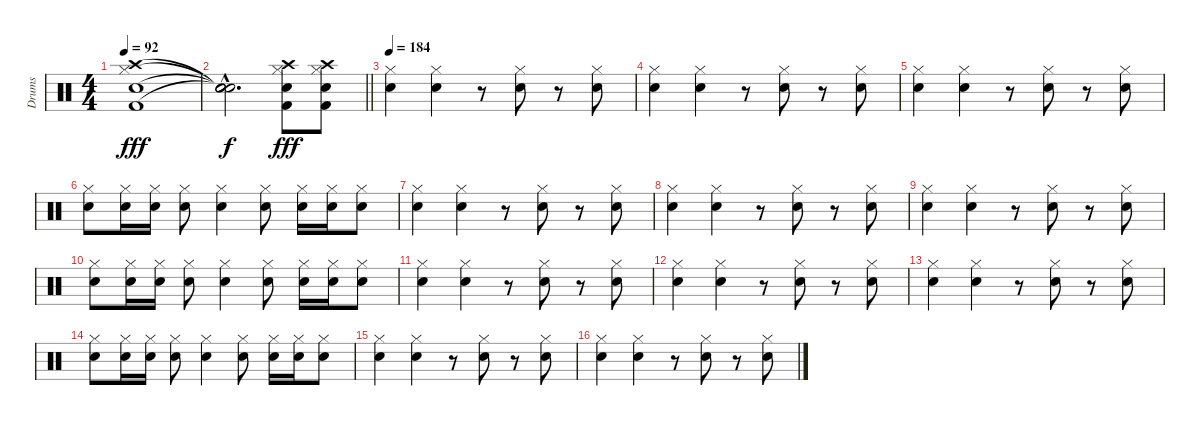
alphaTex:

\track ("Drums" "Drums") {instrument percussion}
\staff {score}
\articulation defaults
\ts (4 4)
\tempo 92
\clef neutral
\ks c
("Hi-Hat (closed)" "Kick (hit) 2" "Snare (hit) 2" "Crash high (hit)").1{dy fff} |
\barLineRight lightlight
("Snare (hit)"{hac t} "Snare (hit)"{hac t} "Snare (hit)"{hac t} "Snare (hit)"{hac t}).2{d dy f} ("Hi-Hat (closed)" "Kick (hit) 2" "Snare (hit) 2" "Crash high (hit)").8{dy fff} ("Hi-Hat (closed)" "Kick (hit) 2" "Snare (hit) 2" "Crash high (hit)").8 |
\tempo 184
("Hi-Hat (closed)" "Snare (hit) 2").4 ("Hi-Hat (closed)" "Snare (hit) 2").4 r.8 ("Hi-Hat (closed)" "Snare (hit) 2").8 r.8 ("Hi-Hat (closed)" "Snare (hit) 2").8 |
("Hi-Hat (closed)" "Snare (hit) 2").4 ("Hi-Hat (closed)" "Snare (hit) 2").4 r.8 ("Hi-Hat (closed)" "Snare (hit) 2").8 r.8 ("Hi-Hat (closed)" "Snare (hit) 2").8 |
("Hi-Hat (closed)" "Snare (hit) 2").4 ("Hi-Hat (closed)" "Snare (hit) 2").4 r.8 ("Hi-Hat (closed)" "Snare (hit) 2").8 r.8 ("Hi-Hat (closed)" "Snare (hit) 2").8 |
("Hi-Hat (closed)" "Snare (hit) 2").8 ("Hi-Hat (closed)" "Snare (hit) 2").16 ("Hi-Hat (closed)" "Snare (hit) 2").16 ("Hi-Hat (closed)" "Snare (hit) 2").8 ("Hi-Hat (closed)" "Snare (hit) 2").4 ("Hi-Hat (closed)" "Snare (hit) 2").8 ("Hi-Hat (closed)" "Snare (hit) 2").16 ("Hi-Hat (closed)" "Snare (hit) 2").16 ("Hi-Hat (closed)" "Snare (hit) 2").8 |
("Hi-Hat (closed)" "Snare (hit) 2").4 ("Hi-Hat (closed)" "Snare (hit) 2").4 r.8 ("Hi-Hat (closed)" "Snare (hit) 2").8 r.8 ("Hi-Hat (closed)" "Snare (hit) 2").8 |
("Hi-Hat (closed)" "Snare (hit) 2").4 ("Hi-Hat (closed)" "Snare (hit) 2").4 r.8 ("Hi-Hat (closed)" "Snare (hit) 2").8 r.8 ("Hi-Hat (closed)" "Snare (hit) 2").8 |
("Hi-Hat (closed)" "Snare (hit) 2").4 ("Hi-Hat (closed)" "Snare (hit) 2").4 r.8 ("Hi-Hat (closed)" "Snare (hit) 2").8 r.8 ("Hi-Hat (closed)" "Snare (hit) 2").8 |
("Hi-Hat (closed)" "Snare (hit) 2").8 ("Hi-Hat (closed)" "Snare (hit) 2").16 ("Hi-Hat (closed)" "Snare (hit) 2").16 ("Hi-Hat (closed)" "Snare (hit) 2").8 ("Hi-Hat (closed)" "Snare (hit) 2").4 ("Hi-Hat (closed)" "Snare (hit) 2").8 ("Hi-Hat (closed)" "Snare (hit) 2").16 ("Hi-Hat (closed)" "Snare (hit) 2").16 ("Hi-Hat (closed)" "Snare (hit) 2").8 |
("Hi-Hat (closed)" "Snare (hit) 2").4 ("Hi-Hat (closed)" "Snare (hit) 2").4 r.8 ("Hi-Hat (closed)" "Snare (hit) 2").8 r.8 ("Hi-Hat (closed)" "Snare (hit) 2").8 |
("Hi-Hat (closed)" "Snare (hit) 2").4 ("Hi-Hat (closed)" "Snare (hit) 2").4 r.8 ("Hi-Hat (closed)" "Snare (hit) 2").8 r.8 ("Hi-Hat (closed)" "Snare (hit) 2").8 |
("Hi-Hat (closed)" "Snare (hit) 2").4 ("Hi-Hat (closed)" "Snare (hit) 2").4 r.8 ("Hi-Hat (closed)" "Snare (hit) 2").8 r.8 ("Hi-Hat (closed)" "Snare (hit) 2").8 |
("Hi-Hat (closed)" "Snare (hit) 2").8 ("Hi-Hat (closed)" "Snare (hit) 2").16 ("Hi-Hat (closed)" "Snare (hit) 2").16 ("Hi-Hat (closed)" "Snare (hit) 2").8 ("Hi-Hat (closed)" "Snare (hit) 2").4 ("Hi-Hat (closed)" "Snare (hit) 2").8 ("Hi-Hat (closed)" "Snare (hit) 2").16 ("Hi-Hat (closed)" "Snare (hit) 2").16 ("Hi-Hat (closed)" "Snare (hit) 2").8 |
("Hi-Hat (closed)" "Snare (hit) 2").4 ("Hi-Hat (closed)" "Snare (hit) 2").4 r.8 ("Hi-Hat (closed)" "Snare (hit) 2").8 r.8 ("Hi-Hat (closed)" "Snare (hit) 2").8 |
("Hi-Hat (closed)" "Snare (hit) 2").4 ("Hi-Hat (closed)" "Snare (hit) 2").4 r.8 ("Hi-Hat (closed)" "Snare (hit) 2").8 r.8 ("Hi-Hat (closed)" "Snare (hit) 2").8
